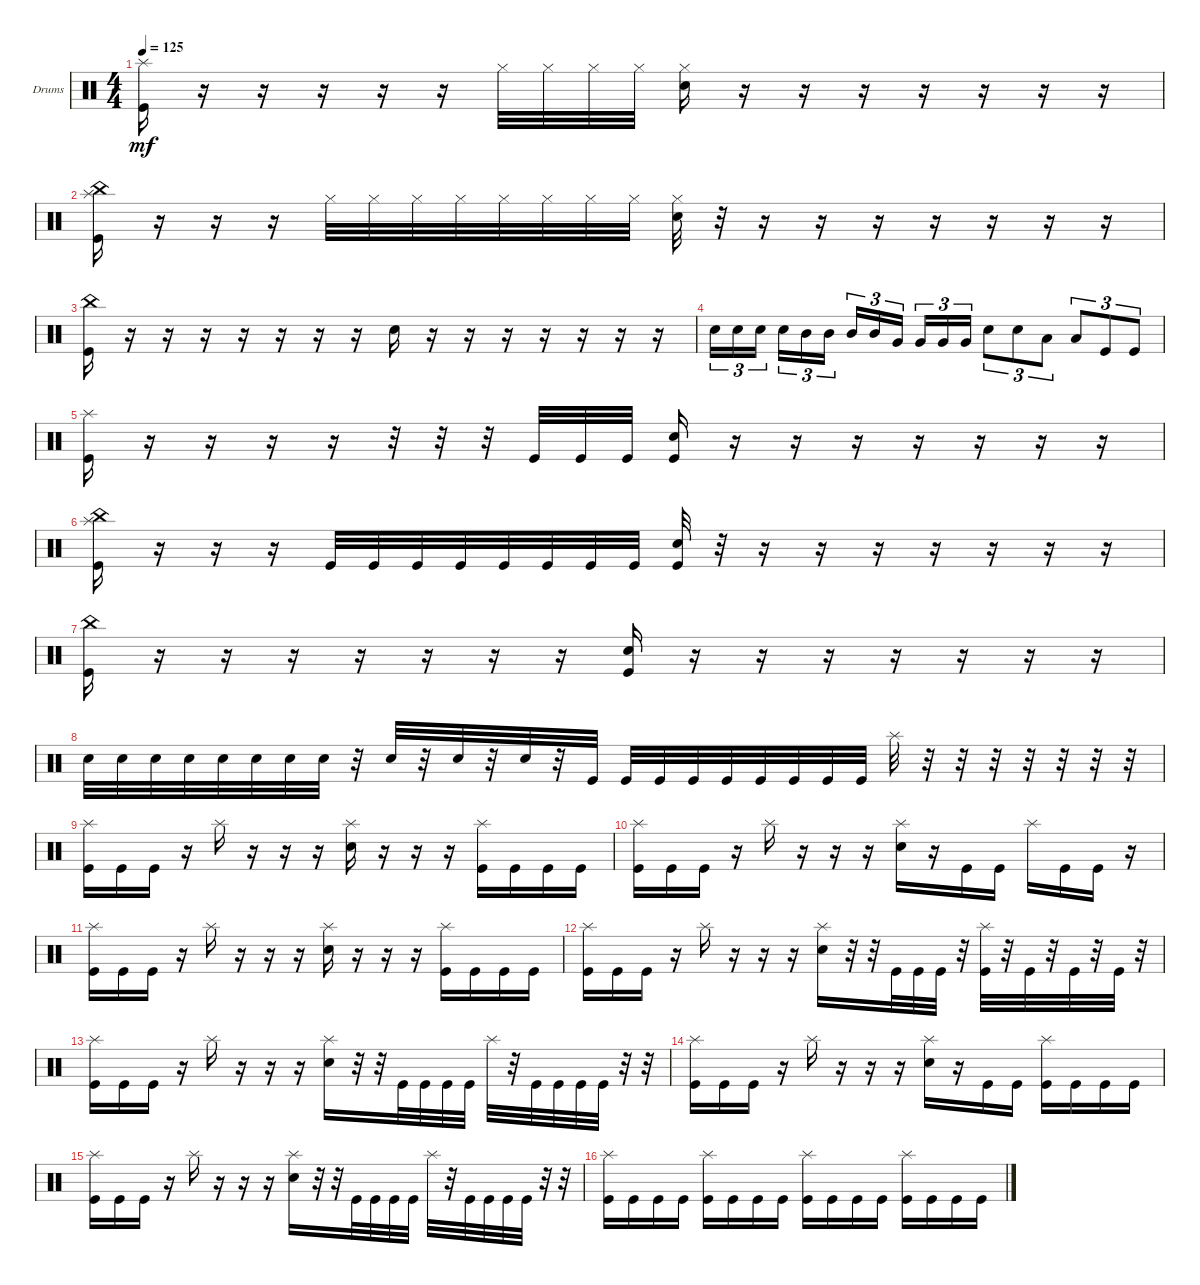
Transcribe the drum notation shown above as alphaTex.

\bracketExtendMode groupsimilarinstruments
\firstSystemTrackNameOrientation horizontal
\otherSystemsTrackNameOrientation horizontal
\track ("Drumkit" "Drums") {solo instrument percussion}
\staff {score}
\articulation defaults
\ts (4 4)
\tempo 125
\clef neutral
\ks c
("Splash (hit)" "Kick (hit)").16{dy mf} r.16 r.16 r.16 r.16 r.16 "Hi-Hat (closed)".32 "Hi-Hat (closed)".32 "Hi-Hat (closed)".32 "Hi-Hat (closed)".32 ("Snare (hit) 2" "Hi-Hat (closed)").16 r.16 r.16 r.16 r.16 r.16 r.16 r.16 |
("Splash (hit)" "China (hit)" "Kick (hit)").16 r.16 r.16 r.16 "Hi-Hat (closed)".32 "Hi-Hat (closed)".32 "Hi-Hat (closed)".32 "Hi-Hat (closed)".32 "Hi-Hat (closed)".32 "Hi-Hat (closed)".32 "Hi-Hat (closed)".32 "Hi-Hat (closed)".32 ("Hi-Hat (closed)" "Snare (hit) 2").32 r.32 r.16 r.16 r.16 r.16 r.16 r.16 r.16 |
("China (hit)" "Kick (hit)").16 r.16 r.16 r.16 r.16 r.16 r.16 r.16 "Snare (hit) 2".16 r.16 r.16 r.16 r.16 r.16 r.16 r.16 |
"Snare (hit) 2".16{tu (3 2)} "Snare (hit) 2".16{tu (3 2)} "Snare (hit) 2".16{tu (3 2)} "Snare (hit) 2".16{tu (3 2)} "Mid Tom (hit)".16{tu (3 2)} "Mid Tom (hit)".16{tu (3 2)} "Mid Tom (hit)".16{tu (3 2)} "Mid Tom (hit)".16{tu (3 2)} "Very Low Tom (hit)".16{tu (3 2)} "Very Low Tom (hit)".16{tu (3 2)} "Very Low Tom (hit)".16{tu (3 2)} "Very Low Tom (hit)".16{tu (3 2)} "Snare (hit) 2".8{tu (3 2)} "Snare (hit) 2".8{tu (3 2)} "Low Tom (hit)".8{tu (3 2)} "Low Tom (hit)".8{tu (3 2)} "Kick (hit)".8{tu (3 2)} "Kick (hit)".8{tu (3 2)} |
("Splash (hit)" "Kick (hit)").16 r.16 r.16 r.16 r.16 r.32 r.32 r.32 "Kick (hit)".32 "Kick (hit)".32 "Kick (hit)".32 ("Snare (hit) 2" "Kick (hit)").16 r.16 r.16 r.16 r.16 r.16 r.16 r.16 |
("Splash (hit)" "China (hit)" "Kick (hit)").16 r.16 r.16 r.16 "Kick (hit)".32 "Kick (hit)".32 "Kick (hit)".32 "Kick (hit)".32 "Kick (hit)".32 "Kick (hit)".32 "Kick (hit)".32 "Kick (hit)".32 ("Snare (hit) 2" "Kick (hit)").32 r.32 r.16 r.16 r.16 r.16 r.16 r.16 r.16 |
("China (hit)" "Kick (hit)").16 r.16 r.16 r.16 r.16 r.16 r.16 r.16 ("Snare (hit) 2" "Kick (hit)").16 r.16 r.16 r.16 r.16 r.16 r.16 r.16 |
"Snare (hit) 2".32 "Snare (hit) 2".32 "Snare (hit) 2".32 "Snare (hit) 2".32 "Snare (hit) 2".32 "Snare (hit) 2".32 "Snare (hit) 2".32 "Snare (hit) 2".32 r.32 "Snare (hit) 2".32 r.32 "Snare (hit) 2".32 r.32 "Snare (hit) 2".32 r.32 "Kick (hit)".32 "Kick (hit)".32 "Kick (hit)".32 "Kick (hit)".32 "Kick (hit)".32 "Kick (hit)".32 "Kick (hit)".32 "Kick (hit)".32 "Kick (hit)".32 "Splash (hit)".32 r.32 r.32 r.32 r.32 r.32 r.32 r.32 |
("Splash (hit)" "Kick (hit)").16 "Kick (hit)".16 "Kick (hit)".16 r.16 "Splash (hit)".16 r.16 r.16 r.16 ("Splash (hit)" "Snare (hit) 2").16 r.16 r.16 r.16 ("Splash (hit)" "Kick (hit)").16 "Kick (hit)".16 "Kick (hit)".16 "Kick (hit)".16 |
("Splash (hit)" "Kick (hit)").16 "Kick (hit)".16 "Kick (hit)".16 r.16 "Splash (hit)".16 r.16 r.16 r.16 ("Splash (hit)" "Snare (hit) 2").16 r.16 "Kick (hit)".16 "Kick (hit)".16 "Splash (hit)".16 "Kick (hit)".16 "Kick (hit)".16 r.16 |
("Splash (hit)" "Kick (hit)").16 "Kick (hit)".16 "Kick (hit)".16 r.16 "Splash (hit)".16 r.16 r.16 r.16 ("Splash (hit)" "Snare (hit) 2").16 r.16 r.16 r.16 ("Splash (hit)" "Kick (hit)").16 "Kick (hit)".16 "Kick (hit)".16 "Kick (hit)".16 |
("Splash (hit)" "Kick (hit)").16 "Kick (hit)".16 "Kick (hit)".16 r.16 "Splash (hit)".16 r.16 r.16 r.16 ("Splash (hit)" "Snare (hit) 2").16 r.32 r.32 "Kick (hit)".32 "Kick (hit)".32 "Kick (hit)".32 r.32 ("Splash (hit)" "Kick (hit)").32 r.32 "Kick (hit)".32 r.32 "Kick (hit)".32 r.32 "Kick (hit)".32 r.32 |
("Splash (hit)" "Kick (hit)").16 "Kick (hit)".16 "Kick (hit)".16 r.16 "Splash (hit)".16 r.16 r.16 r.16 ("Splash (hit)" "Snare (hit) 2").16 r.32 r.32 "Kick (hit)".32 "Kick (hit)".32 "Kick (hit)".32 "Kick (hit)".32 "Splash (hit)".32 r.32 "Kick (hit)".32 "Kick (hit)".32 "Kick (hit)".32 "Kick (hit)".32 r.32 r.32 |
("Splash (hit)" "Kick (hit)").16 "Kick (hit)".16 "Kick (hit)".16 r.16 "Splash (hit)".16 r.16 r.16 r.16 ("Splash (hit)" "Snare (hit) 2").16 r.16 "Kick (hit)".16 "Kick (hit)".16 ("Splash (hit)" "Kick (hit)").16 "Kick (hit)".16 "Kick (hit)".16 "Kick (hit)".16 |
("Splash (hit)" "Kick (hit)").16 "Kick (hit)".16 "Kick (hit)".16 r.16 "Splash (hit)".16 r.16 r.16 r.16 ("Splash (hit)" "Snare (hit) 2").16 r.32 r.32 "Kick (hit)".32 "Kick (hit)".32 "Kick (hit)".32 "Kick (hit)".32 "Splash (hit)".32 r.32 "Kick (hit)".32 "Kick (hit)".32 "Kick (hit)".32 "Kick (hit)".32 r.32 r.32 |
("Splash (hit)" "Kick (hit)").16 "Kick (hit)".16 "Kick (hit)".16 "Kick (hit)".16 ("Splash (hit)" "Kick (hit)").16 "Kick (hit)".16 "Kick (hit)".16 "Kick (hit)".16 ("Splash (hit)" "Kick (hit)").16 "Kick (hit)".16 "Kick (hit)".16 "Kick (hit)".16 ("Splash (hit)" "Kick (hit)").16 "Kick (hit)".16 "Kick (hit)".16 "Kick (hit)".16
